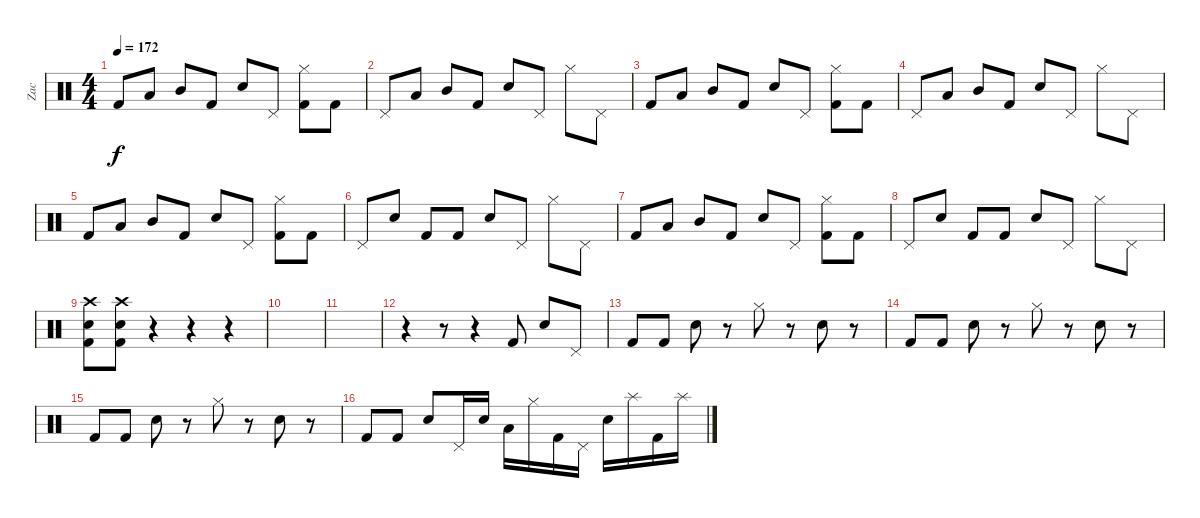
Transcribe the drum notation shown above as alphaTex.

\track ("Zac" "Zac") {instrument percussion}
\staff {score}
\articulation defaults
\ts (4 4)
\tempo 172
\clef neutral
\ks c "Kick (hit) 2".8{dy f} "Low Tom (hit)".8 "Mid Tom (hit)".8 "Kick (hit) 2".8 "Electric Snare (hit)".8 "Pedal Hi-Hat (hit)".8
("Hi-Hat (closed)" "Kick (hit) 2").8 "Kick (hit) 2".8 |
"Pedal Hi-Hat (hit)".8 "Low Tom (hit)".8 "Mid Tom (hit)".8 "Kick (hit) 2".8 "Electric Snare (hit)".8 "Pedal Hi-Hat (hit)".8 "Hi-Hat (closed)".8 "Pedal Hi-Hat (hit)".8 |
"Kick (hit) 2".8 "Low Tom (hit)".8 "Mid Tom (hit)".8 "Kick (hit) 2".8 "Electric Snare (hit)".8 "Pedal Hi-Hat (hit)".8 ("Hi-Hat (closed)" "Kick (hit) 2").8 "Kick (hit) 2".8 |
"Pedal Hi-Hat (hit)".8 "Low Tom (hit)".8 "Mid Tom (hit)".8 "Kick (hit) 2".8 "Electric Snare (hit)".8 "Pedal Hi-Hat (hit)".8 "Hi-Hat (closed)".8 "Pedal Hi-Hat (hit)".8 |
"Kick (hit) 2".8 "Low Tom (hit)".8 "Mid Tom (hit)".8 "Kick (hit) 2".8 "Electric Snare (hit)".8 "Pedal Hi-Hat (hit)".8 ("Hi-Hat (closed)" "Kick (hit) 2").8 "Kick (hit) 2".8 |
"Pedal Hi-Hat (hit)".8 "Electric Snare (hit)".8 "Kick (hit) 2".8 "Kick (hit) 2".8 "Electric Snare (hit)".8 "Pedal Hi-Hat (hit)".8 "Hi-Hat (closed)".8 "Pedal Hi-Hat (hit)".8 |
"Kick (hit) 2".8 "Low Tom (hit)".8 "Mid Tom (hit)".8 "Kick (hit) 2".8 "Electric Snare (hit)".8 "Pedal Hi-Hat (hit)".8 ("Hi-Hat (closed)" "Kick (hit) 2").8 "Kick (hit) 2".8 |
"Pedal Hi-Hat (hit)".8 "Electric Snare (hit)".8 "Kick (hit) 2".8 "Kick (hit) 2".8 "Electric Snare (hit)".8 "Pedal Hi-Hat (hit)".8 "Hi-Hat (closed)".8 "Pedal Hi-Hat (hit)".8 |
("Crash high (hit)" "Electric Snare (hit)" "Kick (hit) 2").8 ("Crash high (hit)" "Electric Snare (hit)" "Kick (hit) 2").8 r.4 r.4 r.4 |
|
|
r.4 r.8 r.4 "Kick (hit) 2".8 "Electric Snare (hit)".8 "Pedal Hi-Hat (hit)".8 |
"Kick (hit) 2".8 "Kick (hit) 2".8 "Electric Snare (hit)".8 r.8 "Hi-Hat (closed)".8 r.8 "Electric Snare (hit)".8 r.8 |
"Kick (hit) 2".8 "Kick (hit) 2".8 "Electric Snare (hit)".8 r.8 "Hi-Hat (closed)".8 r.8 "Electric Snare (hit)".8 r.8 |
"Kick (hit) 2".8 "Kick (hit) 2".8 "Electric Snare (hit)".8 r.8 "Hi-Hat (closed)".8 r.8 "Electric Snare (hit)".8 r.8 |
"Kick (hit) 2".8 "Kick (hit) 2".8 "Electric Snare (hit)".8 "Pedal Hi-Hat (hit)".16 "Electric Snare (hit)".16 "Low Tom (hit)".16 "Hi-Hat (closed)".16 "Kick (hit) 2".16 "Pedal Hi-Hat (hit)".16 "Electric Snare (hit)".16 "Splash (hit)".16 "Kick (hit) 2".16 "Splash (hit)".16
